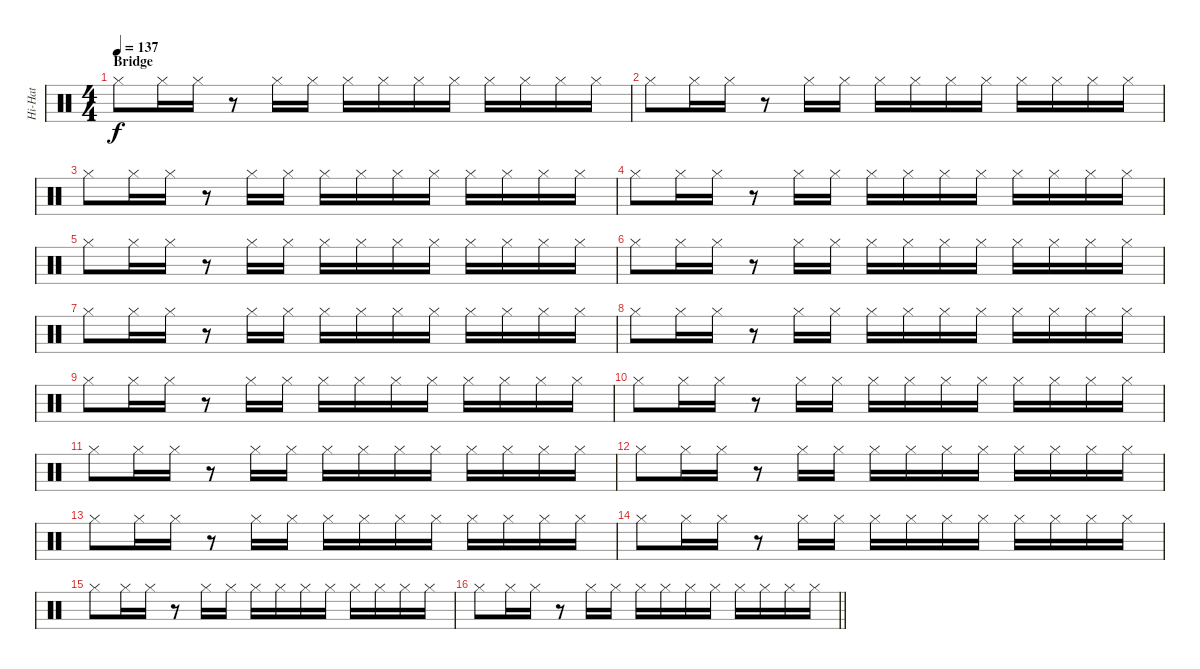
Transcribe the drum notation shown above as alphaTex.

\track ("Hi-Hat" "Hi-Hat") {instrument percussion}
\staff {score}
\articulation defaults
\ts (4 4)
\section ("" "Bridge")
\tempo 137
\clef neutral
\ks c "Hi-Hat (closed)".8{dy f} "Hi-Hat (closed)".16 "Hi-Hat (closed)".16
r.8 "Hi-Hat (closed)".16 "Hi-Hat (closed)".16 "Hi-Hat (closed)".16 "Hi-Hat (closed)".16 "Hi-Hat (closed)".16 "Hi-Hat (closed)".16 "Hi-Hat (closed)".16 "Hi-Hat (closed)".16 "Hi-Hat (closed)".16 "Hi-Hat (closed)".16 |
"Hi-Hat (closed)".8 "Hi-Hat (closed)".16 "Hi-Hat (closed)".16 r.8 "Hi-Hat (closed)".16 "Hi-Hat (closed)".16 "Hi-Hat (closed)".16 "Hi-Hat (closed)".16 "Hi-Hat (closed)".16 "Hi-Hat (closed)".16 "Hi-Hat (closed)".16 "Hi-Hat (closed)".16 "Hi-Hat (closed)".16 "Hi-Hat (closed)".16 |
"Hi-Hat (closed)".8 "Hi-Hat (closed)".16 "Hi-Hat (closed)".16 r.8 "Hi-Hat (closed)".16 "Hi-Hat (closed)".16 "Hi-Hat (closed)".16 "Hi-Hat (closed)".16 "Hi-Hat (closed)".16 "Hi-Hat (closed)".16 "Hi-Hat (closed)".16 "Hi-Hat (closed)".16 "Hi-Hat (closed)".16 "Hi-Hat (closed)".16 |
"Hi-Hat (closed)".8 "Hi-Hat (closed)".16 "Hi-Hat (closed)".16 r.8 "Hi-Hat (closed)".16 "Hi-Hat (closed)".16 "Hi-Hat (closed)".16 "Hi-Hat (closed)".16 "Hi-Hat (closed)".16 "Hi-Hat (closed)".16 "Hi-Hat (closed)".16 "Hi-Hat (closed)".16 "Hi-Hat (closed)".16 "Hi-Hat (closed)".16 |
"Hi-Hat (closed)".8 "Hi-Hat (closed)".16 "Hi-Hat (closed)".16 r.8 "Hi-Hat (closed)".16 "Hi-Hat (closed)".16 "Hi-Hat (closed)".16 "Hi-Hat (closed)".16 "Hi-Hat (closed)".16 "Hi-Hat (closed)".16 "Hi-Hat (closed)".16 "Hi-Hat (closed)".16 "Hi-Hat (closed)".16 "Hi-Hat (closed)".16 |
"Hi-Hat (closed)".8 "Hi-Hat (closed)".16 "Hi-Hat (closed)".16 r.8 "Hi-Hat (closed)".16 "Hi-Hat (closed)".16 "Hi-Hat (closed)".16 "Hi-Hat (closed)".16 "Hi-Hat (closed)".16 "Hi-Hat (closed)".16 "Hi-Hat (closed)".16 "Hi-Hat (closed)".16 "Hi-Hat (closed)".16 "Hi-Hat (closed)".16 |
"Hi-Hat (closed)".8 "Hi-Hat (closed)".16 "Hi-Hat (closed)".16 r.8 "Hi-Hat (closed)".16 "Hi-Hat (closed)".16 "Hi-Hat (closed)".16 "Hi-Hat (closed)".16 "Hi-Hat (closed)".16 "Hi-Hat (closed)".16 "Hi-Hat (closed)".16 "Hi-Hat (closed)".16 "Hi-Hat (closed)".16 "Hi-Hat (closed)".16 |
"Hi-Hat (closed)".8 "Hi-Hat (closed)".16 "Hi-Hat (closed)".16 r.8 "Hi-Hat (closed)".16 "Hi-Hat (closed)".16 "Hi-Hat (closed)".16 "Hi-Hat (closed)".16 "Hi-Hat (closed)".16 "Hi-Hat (closed)".16 "Hi-Hat (closed)".16 "Hi-Hat (closed)".16 "Hi-Hat (closed)".16 "Hi-Hat (closed)".16 |
"Hi-Hat (closed)".8 "Hi-Hat (closed)".16 "Hi-Hat (closed)".16 r.8 "Hi-Hat (closed)".16 "Hi-Hat (closed)".16 "Hi-Hat (closed)".16 "Hi-Hat (closed)".16 "Hi-Hat (closed)".16 "Hi-Hat (closed)".16 "Hi-Hat (closed)".16 "Hi-Hat (closed)".16 "Hi-Hat (closed)".16 "Hi-Hat (closed)".16 |
"Hi-Hat (closed)".8 "Hi-Hat (closed)".16 "Hi-Hat (closed)".16 r.8 "Hi-Hat (closed)".16 "Hi-Hat (closed)".16 "Hi-Hat (closed)".16 "Hi-Hat (closed)".16 "Hi-Hat (closed)".16 "Hi-Hat (closed)".16 "Hi-Hat (closed)".16 "Hi-Hat (closed)".16 "Hi-Hat (closed)".16 "Hi-Hat (closed)".16 |
"Hi-Hat (closed)".8 "Hi-Hat (closed)".16 "Hi-Hat (closed)".16 r.8 "Hi-Hat (closed)".16 "Hi-Hat (closed)".16 "Hi-Hat (closed)".16 "Hi-Hat (closed)".16 "Hi-Hat (closed)".16 "Hi-Hat (closed)".16 "Hi-Hat (closed)".16 "Hi-Hat (closed)".16 "Hi-Hat (closed)".16 "Hi-Hat (closed)".16 |
"Hi-Hat (closed)".8 "Hi-Hat (closed)".16 "Hi-Hat (closed)".16 r.8 "Hi-Hat (closed)".16 "Hi-Hat (closed)".16 "Hi-Hat (closed)".16 "Hi-Hat (closed)".16 "Hi-Hat (closed)".16 "Hi-Hat (closed)".16 "Hi-Hat (closed)".16 "Hi-Hat (closed)".16 "Hi-Hat (closed)".16 "Hi-Hat (closed)".16 |
"Hi-Hat (closed)".8 "Hi-Hat (closed)".16 "Hi-Hat (closed)".16 r.8 "Hi-Hat (closed)".16 "Hi-Hat (closed)".16 "Hi-Hat (closed)".16 "Hi-Hat (closed)".16 "Hi-Hat (closed)".16 "Hi-Hat (closed)".16 "Hi-Hat (closed)".16 "Hi-Hat (closed)".16 "Hi-Hat (closed)".16 "Hi-Hat (closed)".16 |
"Hi-Hat (closed)".8 "Hi-Hat (closed)".16 "Hi-Hat (closed)".16 r.8 "Hi-Hat (closed)".16 "Hi-Hat (closed)".16 "Hi-Hat (closed)".16 "Hi-Hat (closed)".16 "Hi-Hat (closed)".16 "Hi-Hat (closed)".16 "Hi-Hat (closed)".16 "Hi-Hat (closed)".16 "Hi-Hat (closed)".16 "Hi-Hat (closed)".16 |
"Hi-Hat (closed)".8 "Hi-Hat (closed)".16 "Hi-Hat (closed)".16 r.8 "Hi-Hat (closed)".16 "Hi-Hat (closed)".16 "Hi-Hat (closed)".16 "Hi-Hat (closed)".16 "Hi-Hat (closed)".16 "Hi-Hat (closed)".16 "Hi-Hat (closed)".16 "Hi-Hat (closed)".16 "Hi-Hat (closed)".16 "Hi-Hat (closed)".16 |
\barLineRight lightlight "Hi-Hat (closed)".8 "Hi-Hat (closed)".16 "Hi-Hat (closed)".16
r.8 "Hi-Hat (closed)".16 "Hi-Hat (closed)".16 "Hi-Hat (closed)".16 "Hi-Hat (closed)".16 "Hi-Hat (closed)".16 "Hi-Hat (closed)".16 "Hi-Hat (closed)".16 "Hi-Hat (closed)".16 "Hi-Hat (closed)".16 "Hi-Hat (closed)".16
